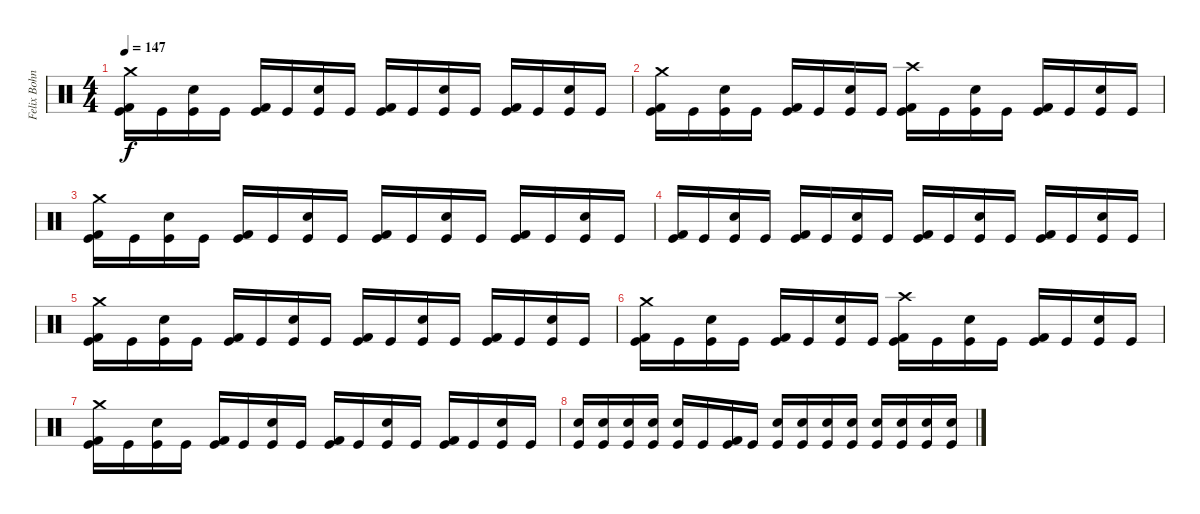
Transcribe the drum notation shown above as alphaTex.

\track ("Felix Bohnke - Drums" "Felix Bohn") {instrument percussion}
\staff {score}
\articulation defaults
\ts (4 4)
\tempo 147
\clef neutral
\ks c
("Crash medium (hit)" "Kick (hit) 2" "Kick (hit)").16{dy f} "Kick (hit)".16 ("Snare (hit) 2" "Kick (hit)").16 "Kick (hit)".16 ("Kick (hit) 2" "Kick (hit)").16 "Kick (hit)".16 ("Snare (hit) 2" "Kick (hit)").16 "Kick (hit)".16 ("Kick (hit) 2" "Kick (hit)").16 "Kick (hit)".16 ("Snare (hit) 2" "Kick (hit)").16 "Kick (hit)".16 ("Kick (hit) 2" "Kick (hit)").16 "Kick (hit)".16 ("Snare (hit) 2" "Kick (hit)").16 "Kick (hit)".16 |
("Crash medium (hit)" "Kick (hit) 2" "Kick (hit)").16 "Kick (hit)".16 ("Snare (hit) 2" "Kick (hit)").16 "Kick (hit)".16 ("Kick (hit) 2" "Kick (hit)").16 "Kick (hit)".16 ("Snare (hit) 2" "Kick (hit)").16 "Kick (hit)".16 ("Crash high (hit)" "Kick (hit) 2" "Kick (hit)").16 "Kick (hit)".16 ("Snare (hit) 2" "Kick (hit)").16 "Kick (hit)".16 ("Kick (hit) 2" "Kick (hit)").16 "Kick (hit)".16 ("Snare (hit) 2" "Kick (hit)").16 "Kick (hit)".16 |
("Crash medium (hit)" "Kick (hit) 2" "Kick (hit)").16 "Kick (hit)".16 ("Snare (hit) 2" "Kick (hit)").16 "Kick (hit)".16 ("Kick (hit) 2" "Kick (hit)").16 "Kick (hit)".16 ("Snare (hit) 2" "Kick (hit)").16 "Kick (hit)".16 ("Kick (hit) 2" "Kick (hit)").16 "Kick (hit)".16 ("Snare (hit) 2" "Kick (hit)").16 "Kick (hit)".16 ("Kick (hit) 2" "Kick (hit)").16 "Kick (hit)".16 ("Snare (hit) 2" "Kick (hit)").16 "Kick (hit)".16 |
("Kick (hit) 2" "Kick (hit)").16 "Kick (hit)".16 ("Snare (hit) 2" "Kick (hit)").16 "Kick (hit)".16 ("Kick (hit) 2" "Kick (hit)").16 "Kick (hit)".16 ("Snare (hit) 2" "Kick (hit)").16 "Kick (hit)".16 ("Kick (hit) 2" "Kick (hit)").16 "Kick (hit)".16 ("Snare (hit) 2" "Kick (hit)").16 "Kick (hit)".16 ("Kick (hit) 2" "Kick (hit)").16 "Kick (hit)".16 ("Snare (hit) 2" "Kick (hit)").16 "Kick (hit)".16 |
("Crash medium (hit)" "Kick (hit) 2" "Kick (hit)").16 "Kick (hit)".16 ("Snare (hit) 2" "Kick (hit)").16 "Kick (hit)".16 ("Kick (hit) 2" "Kick (hit)").16 "Kick (hit)".16 ("Snare (hit) 2" "Kick (hit)").16 "Kick (hit)".16 ("Kick (hit) 2" "Kick (hit)").16 "Kick (hit)".16 ("Snare (hit) 2" "Kick (hit)").16 "Kick (hit)".16 ("Kick (hit) 2" "Kick (hit)").16 "Kick (hit)".16 ("Snare (hit) 2" "Kick (hit)").16 "Kick (hit)".16 |
("Crash medium (hit)" "Kick (hit) 2" "Kick (hit)").16 "Kick (hit)".16 ("Snare (hit) 2" "Kick (hit)").16 "Kick (hit)".16 ("Kick (hit) 2" "Kick (hit)").16 "Kick (hit)".16 ("Snare (hit) 2" "Kick (hit)").16 "Kick (hit)".16 ("Crash high (hit)" "Kick (hit) 2" "Kick (hit)").16 "Kick (hit)".16 ("Snare (hit) 2" "Kick (hit)").16 "Kick (hit)".16 ("Kick (hit) 2" "Kick (hit)").16 "Kick (hit)".16 ("Snare (hit) 2" "Kick (hit)").16 "Kick (hit)".16 |
("Crash medium (hit)" "Kick (hit) 2" "Kick (hit)").16 "Kick (hit)".16 ("Snare (hit) 2" "Kick (hit)").16 "Kick (hit)".16 ("Kick (hit) 2" "Kick (hit)").16 "Kick (hit)".16 ("Snare (hit) 2" "Kick (hit)").16 "Kick (hit)".16 ("Kick (hit) 2" "Kick (hit)").16 "Kick (hit)".16 ("Snare (hit) 2" "Kick (hit)").16 "Kick (hit)".16 ("Kick (hit) 2" "Kick (hit)").16 "Kick (hit)".16 ("Snare (hit) 2" "Kick (hit)").16 "Kick (hit)".16 |
("Snare (hit) 2" "Kick (hit)").16 ("Snare (hit) 2" "Kick (hit)").16 ("Snare (hit) 2" "Kick (hit)").16 ("Snare (hit) 2" "Kick (hit)").16 ("Snare (hit) 2" "Kick (hit)").16 "Kick (hit)".16 ("Kick (hit) 2" "Kick (hit)").16 "Kick (hit)".16 ("Snare (hit) 2" "Kick (hit)").16 ("Snare (hit) 2" "Kick (hit)").16 ("Snare (hit) 2" "Kick (hit)").16 ("Snare (hit) 2" "Kick (hit)").16 ("Snare (hit) 2" "Kick (hit)").16 ("Snare (hit) 2" "Kick (hit)").16 ("Snare (hit) 2" "Kick (hit)").16 ("Snare (hit) 2" "Kick (hit)").16
